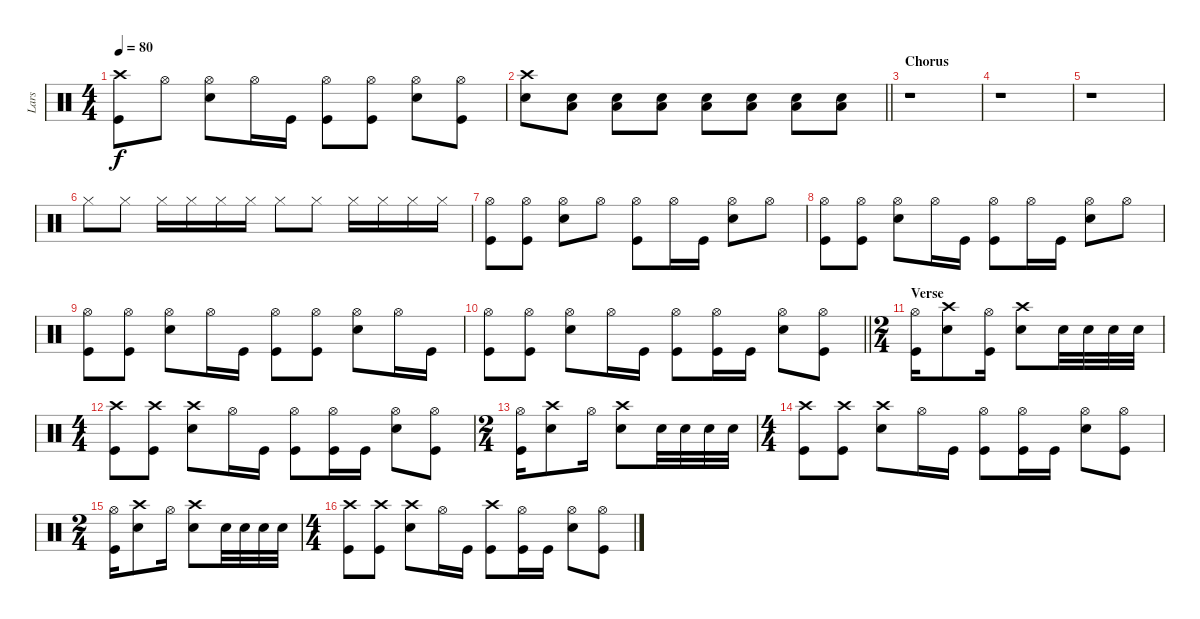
\track ("Lars" "Lars") {instrument percussion}
\staff {score}
\articulation defaults
\ts (4 4)
\tempo 80
\clef neutral
\ks c
("Crash high (hit)" "Kick (hit)").8{dy f} "Hi-Hat (open)".8 ("Hi-Hat (open)" "Snare (hit) 2").8 "Hi-Hat (open)".16 "Kick (hit)".16 ("Hi-Hat (open)" "Kick (hit)").8 ("Hi-Hat (open)" "Kick (hit)").8 ("Hi-Hat (open)" "Snare (hit) 2").8 ("Hi-Hat (open)" "Kick (hit)").8 |
\barLineRight lightlight
("Crash high (hit)" "Snare (hit) 2").8 ("Snare (hit) 2" "Low Floor Tom (hit)").8 ("Snare (hit) 2" "Low Floor Tom (hit)").8 ("Snare (hit) 2" "Low Floor Tom (hit)").8 ("Snare (hit) 2" "Low Floor Tom (hit)").8 ("Snare (hit) 2" "Low Floor Tom (hit)").8 ("Snare (hit) 2" "Low Floor Tom (hit)").8 ("Snare (hit) 2" "Low Floor Tom (hit)").8 |
\section ("" "Chorus")
r.1 |
r.1 |
r.1 |
"Hi-Hat (closed)".8 "Hi-Hat (closed)".8 "Hi-Hat (closed)".16 "Hi-Hat (closed)".16 "Hi-Hat (closed)".16 "Hi-Hat (closed)".16 "Hi-Hat (closed)".8 "Hi-Hat (closed)".8 "Hi-Hat (closed)".16 "Hi-Hat (closed)".16 "Hi-Hat (closed)".16 "Hi-Hat (closed)".16 |
("Hi-Hat (open)" "Kick (hit)").8 ("Hi-Hat (open)" "Kick (hit)").8 ("Hi-Hat (open)" "Snare (hit) 2").8 "Hi-Hat (open)".8 ("Hi-Hat (open)" "Kick (hit)").8 "Hi-Hat (open)".16 "Kick (hit)".16 ("Hi-Hat (open)" "Snare (hit) 2").8 "Hi-Hat (open)".8 |
("Hi-Hat (open)" "Kick (hit)").8 ("Hi-Hat (open)" "Kick (hit)").8 ("Hi-Hat (open)" "Snare (hit) 2").8 "Hi-Hat (open)".16 "Kick (hit)".16 ("Hi-Hat (open)" "Kick (hit)").8 "Hi-Hat (open)".16 "Kick (hit)".16 ("Hi-Hat (open)" "Snare (hit) 2").8 "Hi-Hat (open)".8 |
("Hi-Hat (open)" "Kick (hit)").8 ("Hi-Hat (open)" "Kick (hit)").8 ("Hi-Hat (open)" "Snare (hit) 2").8 "Hi-Hat (open)".16 "Kick (hit)".16 ("Hi-Hat (open)" "Kick (hit)").8 ("Hi-Hat (open)" "Kick (hit)").8 ("Hi-Hat (open)" "Snare (hit) 2").8 "Hi-Hat (open)".16 "Kick (hit)".16 |
\barLineRight lightlight
("Hi-Hat (open)" "Kick (hit)").8 ("Hi-Hat (open)" "Kick (hit)").8 ("Hi-Hat (open)" "Snare (hit) 2").8 "Hi-Hat (open)".16 "Kick (hit)".16 ("Hi-Hat (open)" "Kick (hit)").8 ("Hi-Hat (open)" "Kick (hit)").16 "Kick (hit)".16 ("Hi-Hat (open)" "Snare (hit) 2").8 ("Hi-Hat (open)" "Kick (hit)").8 |
\ts (2 4)
\section ("" "Verse")
("Hi-Hat (open)" "Kick (hit)").16 ("Crash high (hit)" "Snare (hit) 2").8 ("Hi-Hat (open)" "Kick (hit)").16 ("Crash high (hit)" "Snare (hit) 2").8 "Snare (hit) 2".32 "Snare (hit) 2".32 "Snare (hit) 2".32 "Snare (hit) 2".32 |
\ts (4 4)
("Crash high (hit)" "Kick (hit)").8 ("Crash high (hit)" "Kick (hit)").8 ("Crash high (hit)" "Snare (hit) 2").8 "Hi-Hat (open)".16 "Kick (hit)".16 ("Hi-Hat (open)" "Kick (hit)").8 ("Hi-Hat (open)" "Kick (hit)").16 "Kick (hit)".16 ("Hi-Hat (open)" "Snare (hit) 2").8 ("Hi-Hat (open)" "Kick (hit)").8 |
\ts (2 4)
("Hi-Hat (open)" "Kick (hit)").16 ("Crash high (hit)" "Snare (hit) 2").8 "Hi-Hat (open)".16 ("Crash high (hit)" "Snare (hit) 2").8 "Snare (hit) 2".32 "Snare (hit) 2".32 "Snare (hit) 2".32 "Snare (hit) 2".32 |
\ts (4 4)
("Crash high (hit)" "Kick (hit)").8 ("Crash high (hit)" "Kick (hit)").8 ("Crash high (hit)" "Snare (hit) 2").8 "Hi-Hat (open)".16 "Kick (hit)".16 ("Hi-Hat (open)" "Kick (hit)").8 ("Hi-Hat (open)" "Kick (hit)").16 "Kick (hit)".16 ("Hi-Hat (open)" "Snare (hit) 2").8 ("Hi-Hat (open)" "Kick (hit)").8 |
\ts (2 4)
("Hi-Hat (open)" "Kick (hit)").16 ("Crash high (hit)" "Snare (hit) 2").8 "Hi-Hat (open)".16 ("Crash high (hit)" "Snare (hit) 2").8 "Snare (hit) 2".32 "Snare (hit) 2".32 "Snare (hit) 2".32 "Snare (hit) 2".32 |
\ts (4 4)
("Crash high (hit)" "Kick (hit)").8 ("Crash high (hit)" "Kick (hit)").8 ("Crash high (hit)" "Snare (hit) 2").8 "Hi-Hat (open)".16 "Kick (hit)".16 ("Crash high (hit)" "Kick (hit)").8 ("Hi-Hat (open)" "Kick (hit)").16 "Kick (hit)".16 ("Hi-Hat (open)" "Snare (hit) 2").8 ("Hi-Hat (open)" "Kick (hit)").8
